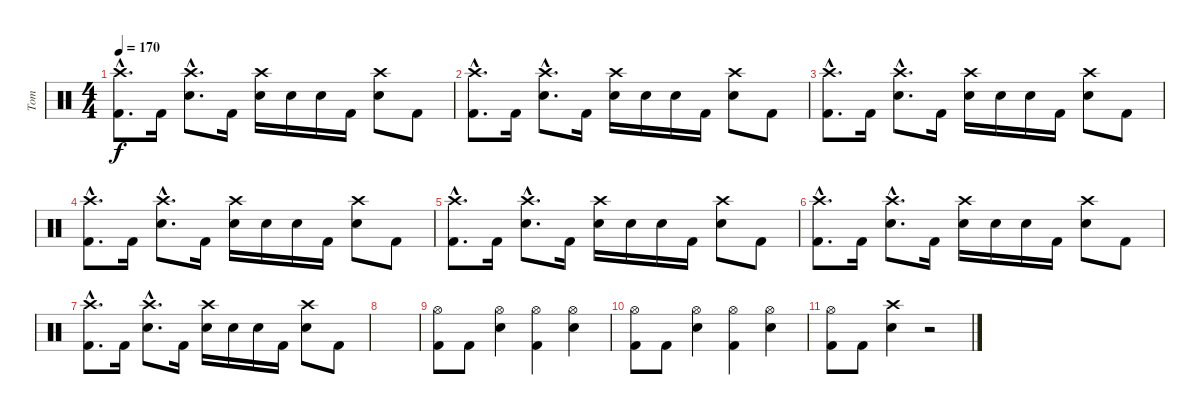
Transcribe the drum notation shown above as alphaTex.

\track ("Tom" "Tom") {instrument percussion}
\staff {score}
\articulation defaults
\ts (4 4)
\tempo 170
\clef neutral
\ks c
("Crash high (hit)"{hac} "Kick (hit) 2"{hac}).8{d dy f} "Kick (hit) 2".16 ("Crash high (hit)"{hac} "Electric Snare (hit)"{hac}).8{d} "Kick (hit) 2".16 ("Crash high (hit)" "Electric Snare (hit)").16 "Electric Snare (hit)".16 "Electric Snare (hit)".16 "Kick (hit) 2".16 ("Crash high (hit)" "Electric Snare (hit)").8 "Kick (hit) 2".8 |
("Crash high (hit)"{hac} "Kick (hit) 2"{hac}).8{d} "Kick (hit) 2".16 ("Crash high (hit)"{hac} "Electric Snare (hit)"{hac}).8{d} "Kick (hit) 2".16 ("Crash high (hit)" "Electric Snare (hit)").16 "Electric Snare (hit)".16 "Electric Snare (hit)".16 "Kick (hit) 2".16 ("Crash high (hit)" "Electric Snare (hit)").8 "Kick (hit) 2".8 |
("Crash high (hit)"{hac} "Kick (hit) 2"{hac}).8{d} "Kick (hit) 2".16 ("Crash high (hit)"{hac} "Electric Snare (hit)"{hac}).8{d} "Kick (hit) 2".16 ("Crash high (hit)" "Electric Snare (hit)").16 "Electric Snare (hit)".16 "Electric Snare (hit)".16 "Kick (hit) 2".16 ("Crash high (hit)" "Electric Snare (hit)").8 "Kick (hit) 2".8 |
("Crash high (hit)"{hac} "Kick (hit) 2"{hac}).8{d} "Kick (hit) 2".16 ("Crash high (hit)"{hac} "Electric Snare (hit)"{hac}).8{d} "Kick (hit) 2".16 ("Crash high (hit)" "Electric Snare (hit)").16 "Electric Snare (hit)".16 "Electric Snare (hit)".16 "Kick (hit) 2".16 ("Crash high (hit)" "Electric Snare (hit)").8 "Kick (hit) 2".8 |
("Crash high (hit)"{hac} "Kick (hit) 2"{hac}).8{d} "Kick (hit) 2".16 ("Crash high (hit)"{hac} "Electric Snare (hit)"{hac}).8{d} "Kick (hit) 2".16 ("Crash high (hit)" "Electric Snare (hit)").16 "Electric Snare (hit)".16 "Electric Snare (hit)".16 "Kick (hit) 2".16 ("Crash high (hit)" "Electric Snare (hit)").8 "Kick (hit) 2".8 |
("Crash high (hit)"{hac} "Kick (hit) 2"{hac}).8{d} "Kick (hit) 2".16 ("Crash high (hit)"{hac} "Electric Snare (hit)"{hac}).8{d} "Kick (hit) 2".16 ("Crash high (hit)" "Electric Snare (hit)").16 "Electric Snare (hit)".16 "Electric Snare (hit)".16 "Kick (hit) 2".16 ("Crash high (hit)" "Electric Snare (hit)").8 "Kick (hit) 2".8 |
("Crash high (hit)"{hac} "Kick (hit) 2"{hac}).8{d} "Kick (hit) 2".16 ("Crash high (hit)"{hac} "Electric Snare (hit)"{hac}).8{d} "Kick (hit) 2".16 ("Crash high (hit)" "Electric Snare (hit)").16 "Electric Snare (hit)".16 "Electric Snare (hit)".16 "Kick (hit) 2".16 ("Crash high (hit)" "Electric Snare (hit)").8 "Kick (hit) 2".8 |
|
("Hi-Hat (open)" "Kick (hit) 2").8 "Kick (hit) 2".8 ("Hi-Hat (open)" "Snare (hit) 2").4 ("Hi-Hat (open)" "Kick (hit) 2").4 ("Hi-Hat (open)" "Snare (hit) 2").4 |
("Hi-Hat (open)" "Kick (hit) 2").8 "Kick (hit) 2".8 ("Hi-Hat (open)" "Snare (hit) 2").4 ("Hi-Hat (open)" "Kick (hit) 2").4 ("Hi-Hat (open)" "Snare (hit) 2").4 |
("Hi-Hat (open)" "Kick (hit) 2").8 "Kick (hit) 2".8 ("Crash high (hit)" "Snare (hit) 2").4 r.2
